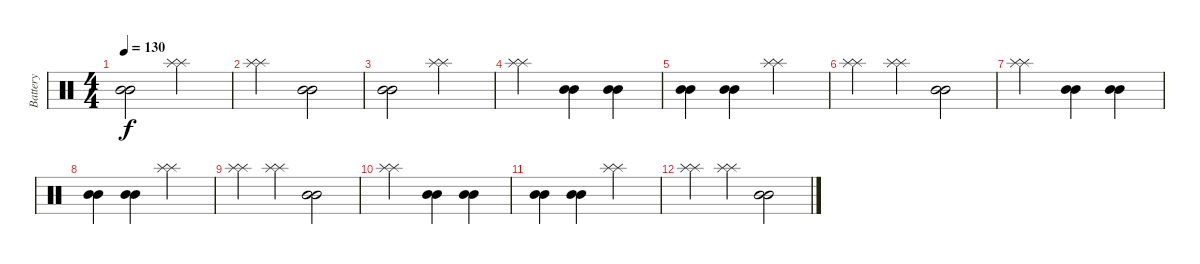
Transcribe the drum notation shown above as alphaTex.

\track ("Battery" "Battery") {instrument percussion}
\staff {score}
\articulation defaults
\ts (4 4)
\tempo 130
\clef neutral
\ks c
("Mid Tom (hit)" "Mid Tom (hit)").2{dy f} ("Splash (hit)" "Splash (hit)").2 |
("Splash (hit)" "Splash (hit)").2 ("Mid Tom (hit)" "Mid Tom (hit)").2 |
("Mid Tom (hit)" "Mid Tom (hit)").2 ("Splash (hit)" "Splash (hit)").2 |
("Splash (hit)" "Splash (hit)").2 ("Mid Tom (hit)" "Mid Tom (hit)").4 ("Mid Tom (hit)" "Mid Tom (hit)").4 |
("Mid Tom (hit)" "Mid Tom (hit)").4 ("Mid Tom (hit)" "Mid Tom (hit)").4 ("Splash (hit)" "Splash (hit)").2 |
("Splash (hit)" "Splash (hit)").4 ("Splash (hit)" "Splash (hit)").4 ("Mid Tom (hit)" "Mid Tom (hit)").2 |
("Splash (hit)" "Splash (hit)").2 ("Mid Tom (hit)" "Mid Tom (hit)").4 ("Mid Tom (hit)" "Mid Tom (hit)").4 |
("Mid Tom (hit)" "Mid Tom (hit)").4 ("Mid Tom (hit)" "Mid Tom (hit)").4 ("Splash (hit)" "Splash (hit)").2 |
("Splash (hit)" "Splash (hit)").4 ("Splash (hit)" "Splash (hit)").4 ("Mid Tom (hit)" "Mid Tom (hit)").2 |
("Splash (hit)" "Splash (hit)").2 ("Mid Tom (hit)" "Mid Tom (hit)").4 ("Mid Tom (hit)" "Mid Tom (hit)").4 |
("Mid Tom (hit)" "Mid Tom (hit)").4 ("Mid Tom (hit)" "Mid Tom (hit)").4 ("Splash (hit)" "Splash (hit)").2 |
("Splash (hit)" "Splash (hit)").4 ("Splash (hit)" "Splash (hit)").4 ("Mid Tom (hit)" "Mid Tom (hit)").2
